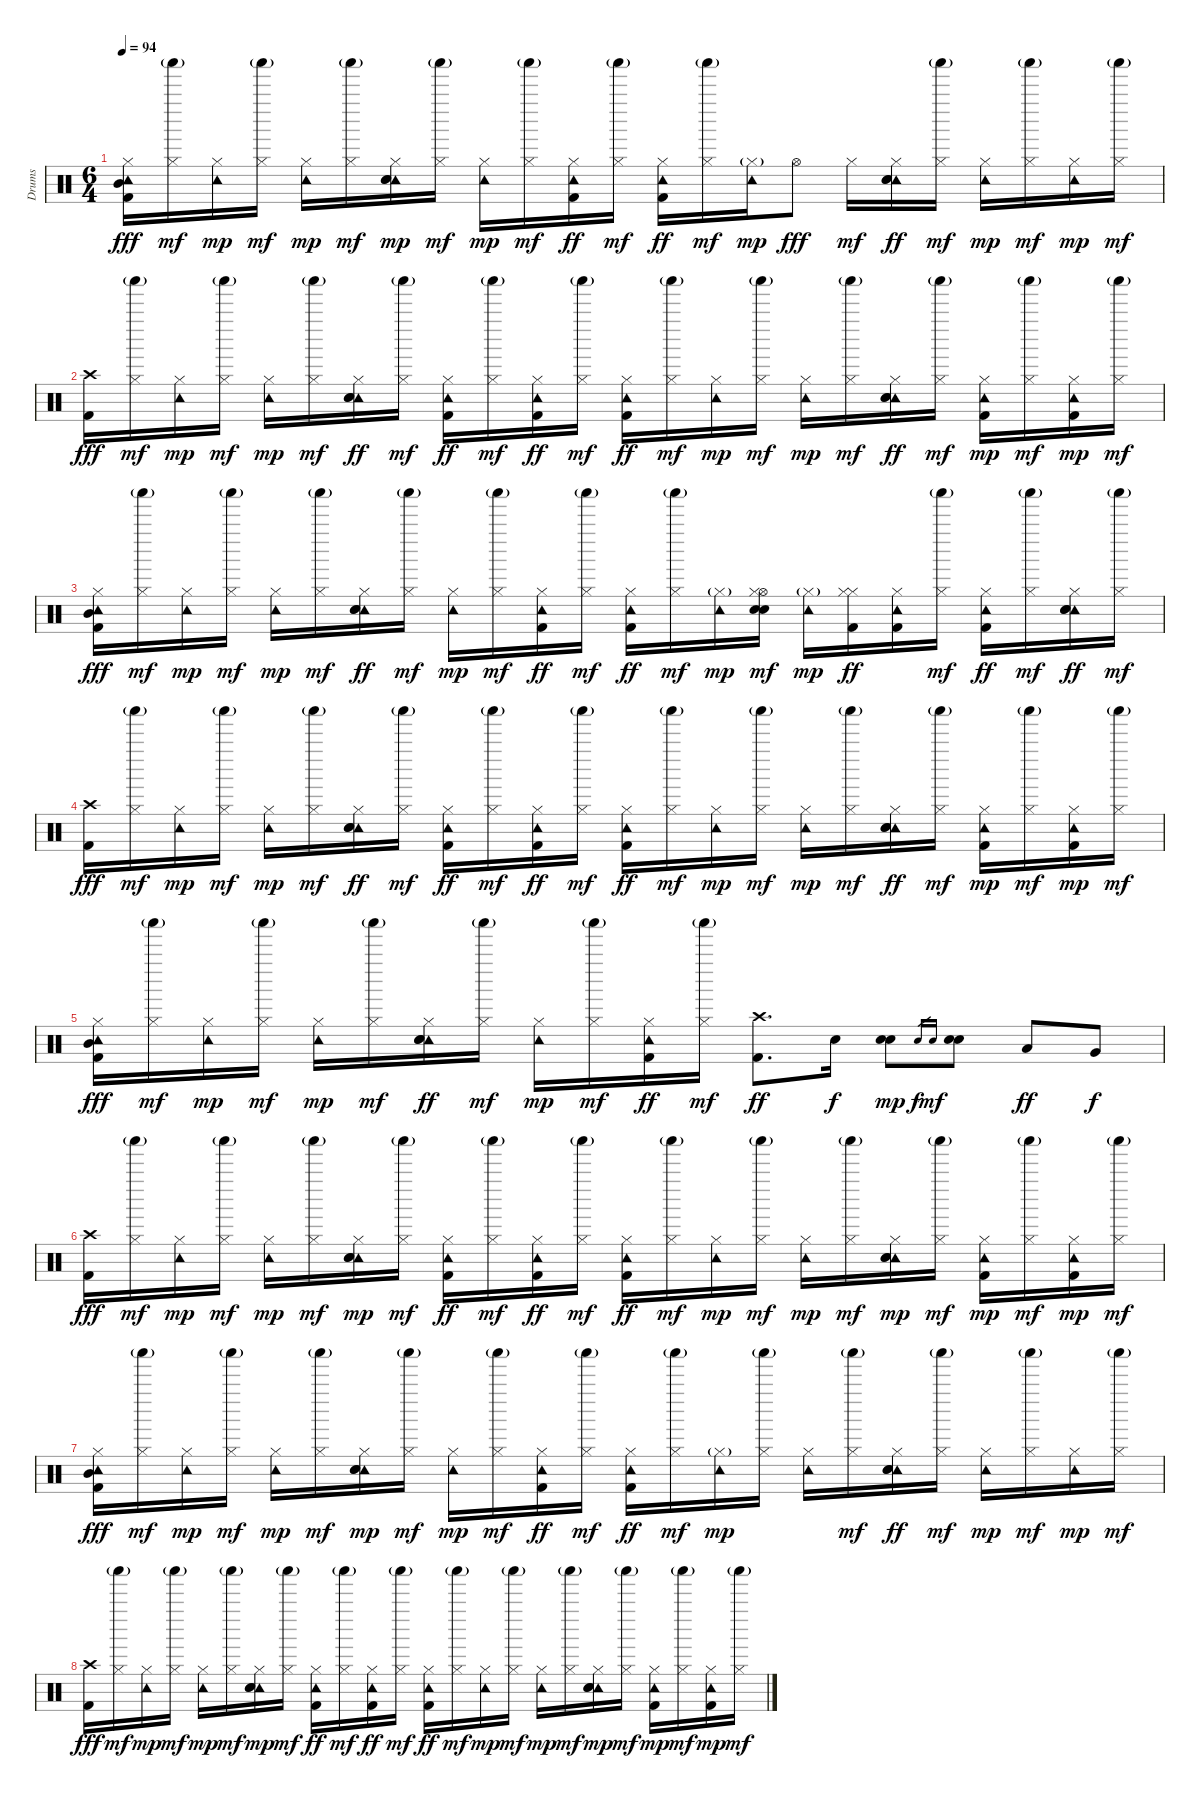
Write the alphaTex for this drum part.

\track ("Drums" "Drums") {instrument percussion}
\staff {score}
\articulation defaults
\ts (6 4)
\tempo 94
\clef neutral
\ks c
("Hi-Hat (closed)" "Tambourine (hit)" "Mid Tom (hit)" "Kick (hit) 2").16{dy fff} ("Shaker (hit)"{g} "Hi-Hat (closed)").16{dy mf} ("Hi-Hat (closed)" "Tambourine (hit)").16{dy mp} ("Shaker (hit)"{g} "Hi-Hat (closed)").16{dy mf} ("Hi-Hat (closed)" "Tambourine (hit)").16{dy mp} ("Shaker (hit)"{g} "Hi-Hat (closed)").16{dy mf} ("Hi-Hat (closed)" "Tambourine (hit)" "Electric Snare (hit)" "Metronome (bell)").16{dy mp} ("Shaker (hit)"{g} "Hi-Hat (closed)").16{dy mf} ("Hi-Hat (closed)" "Tambourine (hit)").16{dy mp} ("Shaker (hit)"{g} "Hi-Hat (closed)").16{dy mf} ("Hi-Hat (closed)" "Tambourine (hit)" "Kick (hit) 2").16{dy ff} ("Shaker (hit)"{g} "Hi-Hat (closed)").16{dy mf} ("Hi-Hat (closed)" "Tambourine (hit)" "Kick (hit) 2").16{dy ff} ("Shaker (hit)"{g} "Hi-Hat (closed)").16{dy mf} ("Hi-Hat (closed)"{g} "Tambourine (hit)").16{dy mp} "Hi-Hat (open)".8{dy fff} "Hi-Hat (closed)".16{dy mf} ("Hi-Hat (closed)" "Tambourine (hit)" "Electric Snare (hit)" "Metronome (bell)").16{dy ff} ("Shaker (hit)"{g} "Hi-Hat (closed)").16{dy mf} ("Hi-Hat (closed)" "Tambourine (hit)").16{dy mp} ("Shaker (hit)"{g} "Hi-Hat (closed)").16{dy mf} ("Hi-Hat (closed)" "Tambourine (hit)").16{dy mp} ("Shaker (hit)"{g} "Hi-Hat (closed)").16{dy mf} |
("Crash high (hit)" "Kick (hit) 2").16{dy fff} ("Shaker (hit)"{g} "Hi-Hat (closed)").16{dy mf} ("Hi-Hat (closed)" "Tambourine (hit)").16{dy mp} ("Shaker (hit)"{g} "Hi-Hat (closed)").16{dy mf} ("Hi-Hat (closed)" "Tambourine (hit)").16{dy mp} ("Shaker (hit)"{g} "Hi-Hat (closed)").16{dy mf} ("Hi-Hat (closed)" "Tambourine (hit)" "Electric Snare (hit)" "Metronome (bell)").16{dy ff} ("Shaker (hit)"{g} "Hi-Hat (closed)").16{dy mf} ("Hi-Hat (closed)" "Tambourine (hit)" "Kick (hit) 2").16{dy ff} ("Shaker (hit)"{g} "Hi-Hat (closed)").16{dy mf} ("Hi-Hat (closed)" "Tambourine (hit)" "Kick (hit) 2").16{dy ff} ("Shaker (hit)"{g} "Hi-Hat (closed)").16{dy mf} ("Hi-Hat (closed)" "Tambourine (hit)" "Kick (hit) 2").16{dy ff} ("Shaker (hit)"{g} "Hi-Hat (closed)").16{dy mf} ("Hi-Hat (closed)" "Tambourine (hit)").16{dy mp} ("Shaker (hit)"{g} "Hi-Hat (closed)").16{dy mf} ("Hi-Hat (closed)" "Tambourine (hit)").16{dy mp} ("Shaker (hit)"{g} "Hi-Hat (closed)").16{dy mf} ("Hi-Hat (closed)" "Tambourine (hit)" "Electric Snare (hit)" "Metronome (bell)").16{dy ff} ("Shaker (hit)"{g} "Hi-Hat (closed)").16{dy mf} ("Hi-Hat (closed)" "Tambourine (hit)" "Kick (hit) 2").16{dy mp} ("Shaker (hit)"{g} "Hi-Hat (closed)").16{dy mf} ("Hi-Hat (closed)" "Tambourine (hit)" "Kick (hit) 2").16{dy mp} ("Shaker (hit)"{g} "Hi-Hat (closed)").16{dy mf} |
("Hi-Hat (closed)" "Tambourine (hit)" "Mid Tom (hit)" "Kick (hit) 2").16{dy fff} ("Shaker (hit)"{g} "Hi-Hat (closed)").16{dy mf} ("Hi-Hat (closed)" "Tambourine (hit)").16{dy mp} ("Shaker (hit)"{g} "Hi-Hat (closed)").16{dy mf} ("Hi-Hat (closed)" "Tambourine (hit)").16{dy mp} ("Shaker (hit)"{g} "Hi-Hat (closed)").16{dy mf} ("Hi-Hat (closed)" "Tambourine (hit)" "Electric Snare (hit)" "Metronome (bell)").16{dy ff} ("Shaker (hit)"{g} "Hi-Hat (closed)").16{dy mf} ("Hi-Hat (closed)" "Tambourine (hit)").16{dy mp} ("Shaker (hit)"{g} "Hi-Hat (closed)").16{dy mf} ("Hi-Hat (closed)" "Tambourine (hit)" "Kick (hit) 2").16{dy ff} ("Shaker (hit)"{g} "Hi-Hat (closed)").16{dy mf} ("Hi-Hat (closed)" "Tambourine (hit)" "Kick (hit) 2").16{dy ff} ("Shaker (hit)"{g} "Hi-Hat (closed)").16{dy mf} ("Hi-Hat (closed)"{g} "Tambourine (hit)").16{dy mp} ("Hi-Hat (open)" "Hi-Hat (closed)" "Electric Snare (hit)" "Metronome (bell)").16{dy mf} ("Hi-Hat (closed)"{g} "Tambourine (hit)").16{dy mp} ("Hi-Hat (closed)" "Hi-Hat (closed)" "Kick (hit) 2").16{dy ff} ("Hi-Hat (closed)" "Tambourine (hit)" "Kick (hit) 2").16 ("Shaker (hit)"{g} "Hi-Hat (closed)").16{dy mf} ("Hi-Hat (closed)" "Tambourine (hit)" "Kick (hit) 2").16{dy ff} ("Shaker (hit)"{g} "Hi-Hat (closed)").16{dy mf} ("Hi-Hat (closed)" "Tambourine (hit)" "Electric Snare (hit)" "Metronome (bell)").16{dy ff} ("Shaker (hit)"{g} "Hi-Hat (closed)").16{dy mf} |
("Crash high (hit)" "Kick (hit) 2").16{dy fff} ("Shaker (hit)"{g} "Hi-Hat (closed)").16{dy mf} ("Hi-Hat (closed)" "Tambourine (hit)").16{dy mp} ("Shaker (hit)"{g} "Hi-Hat (closed)").16{dy mf} ("Hi-Hat (closed)" "Tambourine (hit)").16{dy mp} ("Shaker (hit)"{g} "Hi-Hat (closed)").16{dy mf} ("Hi-Hat (closed)" "Tambourine (hit)" "Electric Snare (hit)" "Metronome (bell)").16{dy ff} ("Shaker (hit)"{g} "Hi-Hat (closed)").16{dy mf} ("Hi-Hat (closed)" "Tambourine (hit)" "Kick (hit) 2").16{dy ff} ("Shaker (hit)"{g} "Hi-Hat (closed)").16{dy mf} ("Hi-Hat (closed)" "Tambourine (hit)" "Kick (hit) 2").16{dy ff} ("Shaker (hit)"{g} "Hi-Hat (closed)").16{dy mf} ("Hi-Hat (closed)" "Tambourine (hit)" "Kick (hit) 2").16{dy ff} ("Shaker (hit)"{g} "Hi-Hat (closed)").16{dy mf} ("Hi-Hat (closed)" "Tambourine (hit)").16{dy mp} ("Shaker (hit)"{g} "Hi-Hat (closed)").16{dy mf} ("Hi-Hat (closed)" "Tambourine (hit)").16{dy mp} ("Shaker (hit)"{g} "Hi-Hat (closed)").16{dy mf} ("Hi-Hat (closed)" "Tambourine (hit)" "Electric Snare (hit)" "Metronome (bell)").16{dy ff} ("Shaker (hit)"{g} "Hi-Hat (closed)").16{dy mf} ("Hi-Hat (closed)" "Tambourine (hit)" "Kick (hit) 2").16{dy mp} ("Shaker (hit)"{g} "Hi-Hat (closed)").16{dy mf} ("Hi-Hat (closed)" "Tambourine (hit)" "Kick (hit) 2").16{dy mp} ("Shaker (hit)"{g} "Hi-Hat (closed)").16{dy mf} |
("Hi-Hat (closed)" "Tambourine (hit)" "Mid Tom (hit)" "Kick (hit) 2").16{dy fff} ("Shaker (hit)"{g} "Hi-Hat (closed)").16{dy mf} ("Hi-Hat (closed)" "Tambourine (hit)").16{dy mp} ("Shaker (hit)"{g} "Hi-Hat (closed)").16{dy mf} ("Hi-Hat (closed)" "Tambourine (hit)").16{dy mp} ("Shaker (hit)"{g} "Hi-Hat (closed)").16{dy mf} ("Hi-Hat (closed)" "Tambourine (hit)" "Electric Snare (hit)" "Metronome (bell)").16{dy ff} ("Shaker (hit)"{g} "Hi-Hat (closed)").16{dy mf} ("Hi-Hat (closed)" "Tambourine (hit)").16{dy mp} ("Shaker (hit)"{g} "Hi-Hat (closed)").16{dy mf} ("Hi-Hat (closed)" "Tambourine (hit)" "Kick (hit) 2").16{dy ff} ("Shaker (hit)"{g} "Hi-Hat (closed)").16{dy mf} ("Crash high (hit)" "Kick (hit) 2").8{d dy ff} "Electric Snare (hit)".16{dy f} ("Electric Snare (hit)" "Metronome (bell)").8{dy mp} "Electric Snare (hit)".16{gr dy f} "Metronome (bell)".16{gr dy mf} ("Electric Snare (hit)" "Metronome (bell)").8 "Low Tom (hit)".8{dy ff} "Very Low Tom (hit)".8{dy f} |
("Crash high (hit)" "Kick (hit) 2").16{dy fff} ("Shaker (hit)"{g} "Hi-Hat (closed)").16{dy mf} ("Hi-Hat (closed)" "Tambourine (hit)").16{dy mp} ("Shaker (hit)"{g} "Hi-Hat (closed)").16{dy mf} ("Hi-Hat (closed)" "Tambourine (hit)").16{dy mp} ("Shaker (hit)"{g} "Hi-Hat (closed)").16{dy mf} ("Hi-Hat (closed)" "Tambourine (hit)" "Electric Snare (hit)" "Metronome (bell)").16{dy mp} ("Shaker (hit)"{g} "Hi-Hat (closed)").16{dy mf} ("Hi-Hat (closed)" "Tambourine (hit)" "Kick (hit) 2").16{dy ff} ("Shaker (hit)"{g} "Hi-Hat (closed)").16{dy mf} ("Hi-Hat (closed)" "Tambourine (hit)" "Kick (hit) 2").16{dy ff} ("Shaker (hit)"{g} "Hi-Hat (closed)").16{dy mf} ("Hi-Hat (closed)" "Tambourine (hit)" "Kick (hit) 2").16{dy ff} ("Shaker (hit)"{g} "Hi-Hat (closed)").16{dy mf} ("Hi-Hat (closed)" "Tambourine (hit)").16{dy mp} ("Shaker (hit)"{g} "Hi-Hat (closed)").16{dy mf} ("Hi-Hat (closed)" "Tambourine (hit)").16{dy mp} ("Shaker (hit)"{g} "Hi-Hat (closed)").16{dy mf} ("Hi-Hat (closed)" "Tambourine (hit)" "Electric Snare (hit)" "Metronome (bell)").16{dy mp} ("Shaker (hit)"{g} "Hi-Hat (closed)").16{dy mf} ("Hi-Hat (closed)" "Tambourine (hit)" "Kick (hit) 2").16{dy mp} ("Shaker (hit)"{g} "Hi-Hat (closed)").16{dy mf} ("Hi-Hat (closed)" "Tambourine (hit)" "Kick (hit) 2").16{dy mp} ("Shaker (hit)"{g} "Hi-Hat (closed)").16{dy mf} |
("Hi-Hat (closed)" "Tambourine (hit)" "Mid Tom (hit)" "Kick (hit) 2").16{dy fff} ("Shaker (hit)"{g} "Hi-Hat (closed)").16{dy mf} ("Hi-Hat (closed)" "Tambourine (hit)").16{dy mp} ("Shaker (hit)"{g} "Hi-Hat (closed)").16{dy mf} ("Hi-Hat (closed)" "Tambourine (hit)").16{dy mp} ("Shaker (hit)"{g} "Hi-Hat (closed)").16{dy mf} ("Hi-Hat (closed)" "Tambourine (hit)" "Electric Snare (hit)" "Metronome (bell)").16{dy mp} ("Shaker (hit)"{g} "Hi-Hat (closed)").16{dy mf} ("Hi-Hat (closed)" "Tambourine (hit)").16{dy mp} ("Shaker (hit)"{g} "Hi-Hat (closed)").16{dy mf} ("Hi-Hat (closed)" "Tambourine (hit)" "Kick (hit) 2").16{dy ff} ("Shaker (hit)"{g} "Hi-Hat (closed)").16{dy mf} ("Hi-Hat (closed)" "Tambourine (hit)" "Kick (hit) 2").16{dy ff} ("Shaker (hit)"{g} "Hi-Hat (closed)").16{dy mf} ("Hi-Hat (closed)"{g} "Tambourine (hit)").16{dy mp} ("Shaker (hit)"{g} "Hi-Hat (closed)").16 ("Hi-Hat (closed)" "Tambourine (hit)").16 ("Shaker (hit)"{g} "Hi-Hat (closed)").16{dy mf} ("Hi-Hat (closed)" "Tambourine (hit)" "Electric Snare (hit)" "Metronome (bell)").16{dy ff} ("Shaker (hit)"{g} "Hi-Hat (closed)").16{dy mf} ("Hi-Hat (closed)" "Tambourine (hit)").16{dy mp} ("Shaker (hit)"{g} "Hi-Hat (closed)").16{dy mf} ("Hi-Hat (closed)" "Tambourine (hit)").16{dy mp} ("Shaker (hit)"{g} "Hi-Hat (closed)").16{dy mf} |
("Crash high (hit)" "Kick (hit) 2").16{dy fff} ("Shaker (hit)"{g} "Hi-Hat (closed)").16{dy mf} ("Hi-Hat (closed)" "Tambourine (hit)").16{dy mp} ("Shaker (hit)"{g} "Hi-Hat (closed)").16{dy mf} ("Hi-Hat (closed)" "Tambourine (hit)").16{dy mp} ("Shaker (hit)"{g} "Hi-Hat (closed)").16{dy mf} ("Hi-Hat (closed)" "Tambourine (hit)" "Electric Snare (hit)" "Metronome (bell)").16{dy mp} ("Shaker (hit)"{g} "Hi-Hat (closed)").16{dy mf} ("Hi-Hat (closed)" "Tambourine (hit)" "Kick (hit) 2").16{dy ff} ("Shaker (hit)"{g} "Hi-Hat (closed)").16{dy mf} ("Hi-Hat (closed)" "Tambourine (hit)" "Kick (hit) 2").16{dy ff} ("Shaker (hit)"{g} "Hi-Hat (closed)").16{dy mf} ("Hi-Hat (closed)" "Tambourine (hit)" "Kick (hit) 2").16{dy ff} ("Shaker (hit)"{g} "Hi-Hat (closed)").16{dy mf} ("Hi-Hat (closed)" "Tambourine (hit)").16{dy mp} ("Shaker (hit)"{g} "Hi-Hat (closed)").16{dy mf} ("Hi-Hat (closed)" "Tambourine (hit)").16{dy mp} ("Shaker (hit)"{g} "Hi-Hat (closed)").16{dy mf} ("Hi-Hat (closed)" "Tambourine (hit)" "Electric Snare (hit)" "Metronome (bell)").16{dy mp} ("Shaker (hit)"{g} "Hi-Hat (closed)").16{dy mf} ("Hi-Hat (closed)" "Tambourine (hit)" "Kick (hit) 2").16{dy mp} ("Shaker (hit)"{g} "Hi-Hat (closed)").16{dy mf} ("Hi-Hat (closed)" "Tambourine (hit)" "Kick (hit) 2").16{dy mp} ("Shaker (hit)"{g} "Hi-Hat (closed)").16{dy mf}
